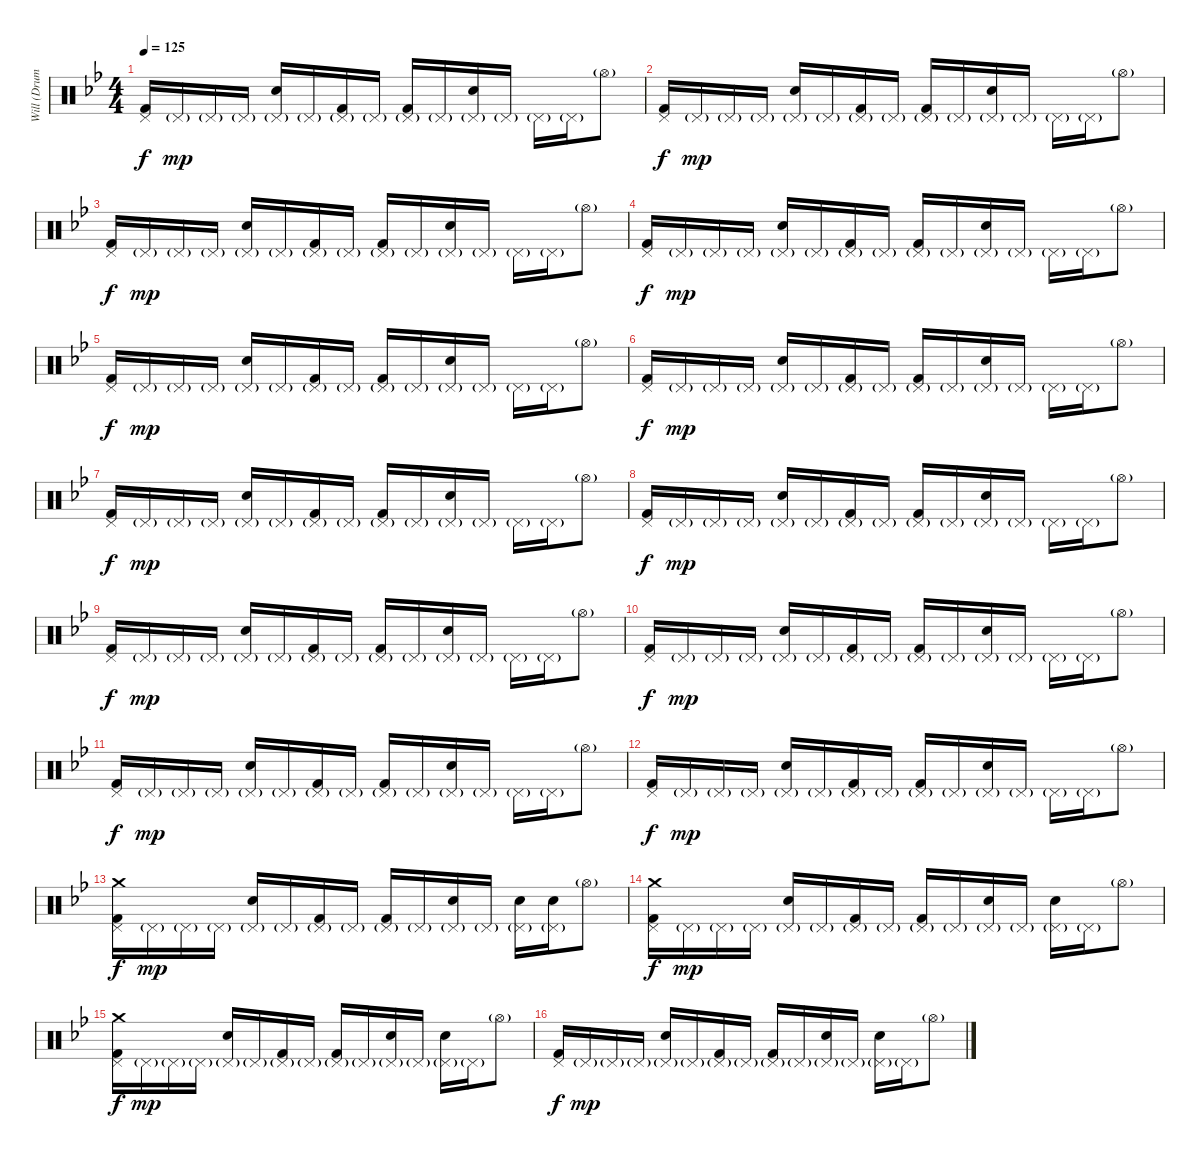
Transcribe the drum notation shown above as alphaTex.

\track ("Will (Drums)" "Will (Drum") {instrument percussion}
\staff {score}
\articulation defaults
\ts (4 4)
\tempo 125
\clef neutral
\ks bb
("Kick (hit) 2" "Pedal Hi-Hat (hit)").16{dy f} "Pedal Hi-Hat (hit)"{g}.16{dy mp} "Pedal Hi-Hat (hit)"{g}.16 "Pedal Hi-Hat (hit)"{g}.16 ("Snare (hit) 2" "Pedal Hi-Hat (hit)"{g}).16 "Pedal Hi-Hat (hit)"{g}.16 ("Kick (hit) 2" "Pedal Hi-Hat (hit)"{g}).16 "Pedal Hi-Hat (hit)"{g}.16 ("Kick (hit) 2" "Pedal Hi-Hat (hit)"{g}).16 "Pedal Hi-Hat (hit)"{g}.16 ("Snare (hit) 2" "Pedal Hi-Hat (hit)"{g}).16 "Pedal Hi-Hat (hit)"{g}.16 "Pedal Hi-Hat (hit)"{g}.16 "Pedal Hi-Hat (hit)"{g}.16 "Hi-Hat (open)"{g}.8 |
("Kick (hit) 2" "Pedal Hi-Hat (hit)").16{dy f} "Pedal Hi-Hat (hit)"{g}.16{dy mp} "Pedal Hi-Hat (hit)"{g}.16 "Pedal Hi-Hat (hit)"{g}.16 ("Snare (hit) 2" "Pedal Hi-Hat (hit)"{g}).16 "Pedal Hi-Hat (hit)"{g}.16 ("Kick (hit) 2" "Pedal Hi-Hat (hit)"{g}).16 "Pedal Hi-Hat (hit)"{g}.16 ("Kick (hit) 2" "Pedal Hi-Hat (hit)"{g}).16 "Pedal Hi-Hat (hit)"{g}.16 ("Snare (hit) 2" "Pedal Hi-Hat (hit)"{g}).16 "Pedal Hi-Hat (hit)"{g}.16 "Pedal Hi-Hat (hit)"{g}.16 "Pedal Hi-Hat (hit)"{g}.16 "Hi-Hat (open)"{g}.8 |
("Kick (hit) 2" "Pedal Hi-Hat (hit)").16{dy f} "Pedal Hi-Hat (hit)"{g}.16{dy mp} "Pedal Hi-Hat (hit)"{g}.16 "Pedal Hi-Hat (hit)"{g}.16 ("Snare (hit) 2" "Pedal Hi-Hat (hit)"{g}).16 "Pedal Hi-Hat (hit)"{g}.16 ("Kick (hit) 2" "Pedal Hi-Hat (hit)"{g}).16 "Pedal Hi-Hat (hit)"{g}.16 ("Kick (hit) 2" "Pedal Hi-Hat (hit)"{g}).16 "Pedal Hi-Hat (hit)"{g}.16 ("Snare (hit) 2" "Pedal Hi-Hat (hit)"{g}).16 "Pedal Hi-Hat (hit)"{g}.16 "Pedal Hi-Hat (hit)"{g}.16 "Pedal Hi-Hat (hit)"{g}.16 "Hi-Hat (open)"{g}.8 |
("Kick (hit) 2" "Pedal Hi-Hat (hit)").16{dy f} "Pedal Hi-Hat (hit)"{g}.16{dy mp} "Pedal Hi-Hat (hit)"{g}.16 "Pedal Hi-Hat (hit)"{g}.16 ("Snare (hit) 2" "Pedal Hi-Hat (hit)"{g}).16 "Pedal Hi-Hat (hit)"{g}.16 ("Kick (hit) 2" "Pedal Hi-Hat (hit)"{g}).16 "Pedal Hi-Hat (hit)"{g}.16 ("Kick (hit) 2" "Pedal Hi-Hat (hit)"{g}).16 "Pedal Hi-Hat (hit)"{g}.16 ("Snare (hit) 2" "Pedal Hi-Hat (hit)"{g}).16 "Pedal Hi-Hat (hit)"{g}.16 "Pedal Hi-Hat (hit)"{g}.16 "Pedal Hi-Hat (hit)"{g}.16 "Hi-Hat (open)"{g}.8 |
("Kick (hit) 2" "Pedal Hi-Hat (hit)").16{dy f} "Pedal Hi-Hat (hit)"{g}.16{dy mp} "Pedal Hi-Hat (hit)"{g}.16 "Pedal Hi-Hat (hit)"{g}.16 ("Snare (hit) 2" "Pedal Hi-Hat (hit)"{g}).16 "Pedal Hi-Hat (hit)"{g}.16 ("Kick (hit) 2" "Pedal Hi-Hat (hit)"{g}).16 "Pedal Hi-Hat (hit)"{g}.16 ("Kick (hit) 2" "Pedal Hi-Hat (hit)"{g}).16 "Pedal Hi-Hat (hit)"{g}.16 ("Snare (hit) 2" "Pedal Hi-Hat (hit)"{g}).16 "Pedal Hi-Hat (hit)"{g}.16 "Pedal Hi-Hat (hit)"{g}.16 "Pedal Hi-Hat (hit)"{g}.16 "Hi-Hat (open)"{g}.8 |
("Kick (hit) 2" "Pedal Hi-Hat (hit)").16{dy f} "Pedal Hi-Hat (hit)"{g}.16{dy mp} "Pedal Hi-Hat (hit)"{g}.16 "Pedal Hi-Hat (hit)"{g}.16 ("Snare (hit) 2" "Pedal Hi-Hat (hit)"{g}).16 "Pedal Hi-Hat (hit)"{g}.16 ("Kick (hit) 2" "Pedal Hi-Hat (hit)"{g}).16 "Pedal Hi-Hat (hit)"{g}.16 ("Kick (hit) 2" "Pedal Hi-Hat (hit)"{g}).16 "Pedal Hi-Hat (hit)"{g}.16 ("Snare (hit) 2" "Pedal Hi-Hat (hit)"{g}).16 "Pedal Hi-Hat (hit)"{g}.16 "Pedal Hi-Hat (hit)"{g}.16 "Pedal Hi-Hat (hit)"{g}.16 "Hi-Hat (open)"{g}.8 |
("Kick (hit) 2" "Pedal Hi-Hat (hit)").16{dy f} "Pedal Hi-Hat (hit)"{g}.16{dy mp} "Pedal Hi-Hat (hit)"{g}.16 "Pedal Hi-Hat (hit)"{g}.16 ("Snare (hit) 2" "Pedal Hi-Hat (hit)"{g}).16 "Pedal Hi-Hat (hit)"{g}.16 ("Kick (hit) 2" "Pedal Hi-Hat (hit)"{g}).16 "Pedal Hi-Hat (hit)"{g}.16 ("Kick (hit) 2" "Pedal Hi-Hat (hit)"{g}).16 "Pedal Hi-Hat (hit)"{g}.16 ("Snare (hit) 2" "Pedal Hi-Hat (hit)"{g}).16 "Pedal Hi-Hat (hit)"{g}.16 "Pedal Hi-Hat (hit)"{g}.16 "Pedal Hi-Hat (hit)"{g}.16 "Hi-Hat (open)"{g}.8 |
("Kick (hit) 2" "Pedal Hi-Hat (hit)").16{dy f} "Pedal Hi-Hat (hit)"{g}.16{dy mp} "Pedal Hi-Hat (hit)"{g}.16 "Pedal Hi-Hat (hit)"{g}.16 ("Snare (hit) 2" "Pedal Hi-Hat (hit)"{g}).16 "Pedal Hi-Hat (hit)"{g}.16 ("Kick (hit) 2" "Pedal Hi-Hat (hit)"{g}).16 "Pedal Hi-Hat (hit)"{g}.16 ("Kick (hit) 2" "Pedal Hi-Hat (hit)"{g}).16 "Pedal Hi-Hat (hit)"{g}.16 ("Snare (hit) 2" "Pedal Hi-Hat (hit)"{g}).16 "Pedal Hi-Hat (hit)"{g}.16 "Pedal Hi-Hat (hit)"{g}.16 "Pedal Hi-Hat (hit)"{g}.16 "Hi-Hat (open)"{g}.8 |
("Kick (hit) 2" "Pedal Hi-Hat (hit)").16{dy f} "Pedal Hi-Hat (hit)"{g}.16{dy mp} "Pedal Hi-Hat (hit)"{g}.16 "Pedal Hi-Hat (hit)"{g}.16 ("Snare (hit) 2" "Pedal Hi-Hat (hit)"{g}).16 "Pedal Hi-Hat (hit)"{g}.16 ("Kick (hit) 2" "Pedal Hi-Hat (hit)"{g}).16 "Pedal Hi-Hat (hit)"{g}.16 ("Kick (hit) 2" "Pedal Hi-Hat (hit)"{g}).16 "Pedal Hi-Hat (hit)"{g}.16 ("Snare (hit) 2" "Pedal Hi-Hat (hit)"{g}).16 "Pedal Hi-Hat (hit)"{g}.16 "Pedal Hi-Hat (hit)"{g}.16 "Pedal Hi-Hat (hit)"{g}.16 "Hi-Hat (open)"{g}.8 |
("Kick (hit) 2" "Pedal Hi-Hat (hit)").16{dy f} "Pedal Hi-Hat (hit)"{g}.16{dy mp} "Pedal Hi-Hat (hit)"{g}.16 "Pedal Hi-Hat (hit)"{g}.16 ("Snare (hit) 2" "Pedal Hi-Hat (hit)"{g}).16 "Pedal Hi-Hat (hit)"{g}.16 ("Kick (hit) 2" "Pedal Hi-Hat (hit)"{g}).16 "Pedal Hi-Hat (hit)"{g}.16 ("Kick (hit) 2" "Pedal Hi-Hat (hit)"{g}).16 "Pedal Hi-Hat (hit)"{g}.16 ("Snare (hit) 2" "Pedal Hi-Hat (hit)"{g}).16 "Pedal Hi-Hat (hit)"{g}.16 "Pedal Hi-Hat (hit)"{g}.16 "Pedal Hi-Hat (hit)"{g}.16 "Hi-Hat (open)"{g}.8 |
("Kick (hit) 2" "Pedal Hi-Hat (hit)").16{dy f} "Pedal Hi-Hat (hit)"{g}.16{dy mp} "Pedal Hi-Hat (hit)"{g}.16 "Pedal Hi-Hat (hit)"{g}.16 ("Snare (hit) 2" "Pedal Hi-Hat (hit)"{g}).16 "Pedal Hi-Hat (hit)"{g}.16 ("Kick (hit) 2" "Pedal Hi-Hat (hit)"{g}).16 "Pedal Hi-Hat (hit)"{g}.16 ("Kick (hit) 2" "Pedal Hi-Hat (hit)"{g}).16 "Pedal Hi-Hat (hit)"{g}.16 ("Snare (hit) 2" "Pedal Hi-Hat (hit)"{g}).16 "Pedal Hi-Hat (hit)"{g}.16 "Pedal Hi-Hat (hit)"{g}.16 "Pedal Hi-Hat (hit)"{g}.16 "Hi-Hat (open)"{g}.8 |
("Kick (hit) 2" "Pedal Hi-Hat (hit)").16{dy f} "Pedal Hi-Hat (hit)"{g}.16{dy mp} "Pedal Hi-Hat (hit)"{g}.16 "Pedal Hi-Hat (hit)"{g}.16 ("Snare (hit) 2" "Pedal Hi-Hat (hit)"{g}).16 "Pedal Hi-Hat (hit)"{g}.16 ("Kick (hit) 2" "Pedal Hi-Hat (hit)"{g}).16 "Pedal Hi-Hat (hit)"{g}.16 ("Kick (hit) 2" "Pedal Hi-Hat (hit)"{g}).16 "Pedal Hi-Hat (hit)"{g}.16 ("Snare (hit) 2" "Pedal Hi-Hat (hit)"{g}).16 "Pedal Hi-Hat (hit)"{g}.16 "Pedal Hi-Hat (hit)"{g}.16 "Pedal Hi-Hat (hit)"{g}.16 "Hi-Hat (open)"{g}.8 |
("Kick (hit) 2" "Pedal Hi-Hat (hit)" "Crash medium (hit)").16{dy f} "Pedal Hi-Hat (hit)"{g}.16{dy mp} "Pedal Hi-Hat (hit)"{g}.16 "Pedal Hi-Hat (hit)"{g}.16 ("Snare (hit) 2" "Pedal Hi-Hat (hit)"{g}).16 "Pedal Hi-Hat (hit)"{g}.16 ("Kick (hit) 2" "Pedal Hi-Hat (hit)"{g}).16 "Pedal Hi-Hat (hit)"{g}.16 ("Kick (hit) 2" "Pedal Hi-Hat (hit)"{g}).16 "Pedal Hi-Hat (hit)"{g}.16 ("Snare (hit) 2" "Pedal Hi-Hat (hit)"{g}).16 "Pedal Hi-Hat (hit)"{g}.16 ("Snare (hit) 2" "Pedal Hi-Hat (hit)"{g}).16 ("Snare (hit) 2" "Pedal Hi-Hat (hit)"{g}).16 "Hi-Hat (open)"{g}.8 |
("Kick (hit) 2" "Pedal Hi-Hat (hit)" "Crash medium (hit)").16{dy f} "Pedal Hi-Hat (hit)"{g}.16{dy mp} "Pedal Hi-Hat (hit)"{g}.16 "Pedal Hi-Hat (hit)"{g}.16 ("Snare (hit) 2" "Pedal Hi-Hat (hit)"{g}).16 "Pedal Hi-Hat (hit)"{g}.16 ("Kick (hit) 2" "Pedal Hi-Hat (hit)"{g}).16 "Pedal Hi-Hat (hit)"{g}.16 ("Kick (hit) 2" "Pedal Hi-Hat (hit)"{g}).16 "Pedal Hi-Hat (hit)"{g}.16 ("Snare (hit) 2" "Pedal Hi-Hat (hit)"{g}).16 "Pedal Hi-Hat (hit)"{g}.16 ("Snare (hit) 2" "Pedal Hi-Hat (hit)"{g}).16 "Pedal Hi-Hat (hit)"{g}.16 "Hi-Hat (open)"{g}.8 |
("Kick (hit) 2" "Pedal Hi-Hat (hit)" "Crash medium (hit)").16{dy f} "Pedal Hi-Hat (hit)"{g}.16{dy mp} "Pedal Hi-Hat (hit)"{g}.16 "Pedal Hi-Hat (hit)"{g}.16 ("Snare (hit) 2" "Pedal Hi-Hat (hit)"{g}).16 "Pedal Hi-Hat (hit)"{g}.16 ("Kick (hit) 2" "Pedal Hi-Hat (hit)"{g}).16 "Pedal Hi-Hat (hit)"{g}.16 ("Kick (hit) 2" "Pedal Hi-Hat (hit)"{g}).16 "Pedal Hi-Hat (hit)"{g}.16 ("Snare (hit) 2" "Pedal Hi-Hat (hit)"{g}).16 "Pedal Hi-Hat (hit)"{g}.16 ("Snare (hit) 2" "Pedal Hi-Hat (hit)"{g}).16 "Pedal Hi-Hat (hit)"{g}.16 "Hi-Hat (open)"{g}.8 |
("Kick (hit) 2" "Pedal Hi-Hat (hit)").16{dy f} "Pedal Hi-Hat (hit)"{g}.16{dy mp} "Pedal Hi-Hat (hit)"{g}.16 "Pedal Hi-Hat (hit)"{g}.16 ("Snare (hit) 2" "Pedal Hi-Hat (hit)"{g}).16 "Pedal Hi-Hat (hit)"{g}.16 ("Kick (hit) 2" "Pedal Hi-Hat (hit)"{g}).16 "Pedal Hi-Hat (hit)"{g}.16 ("Kick (hit) 2" "Pedal Hi-Hat (hit)"{g}).16 "Pedal Hi-Hat (hit)"{g}.16 ("Snare (hit) 2" "Pedal Hi-Hat (hit)"{g}).16 "Pedal Hi-Hat (hit)"{g}.16 ("Snare (hit) 2" "Pedal Hi-Hat (hit)"{g}).16 "Pedal Hi-Hat (hit)"{g}.16 "Hi-Hat (open)"{g}.8
